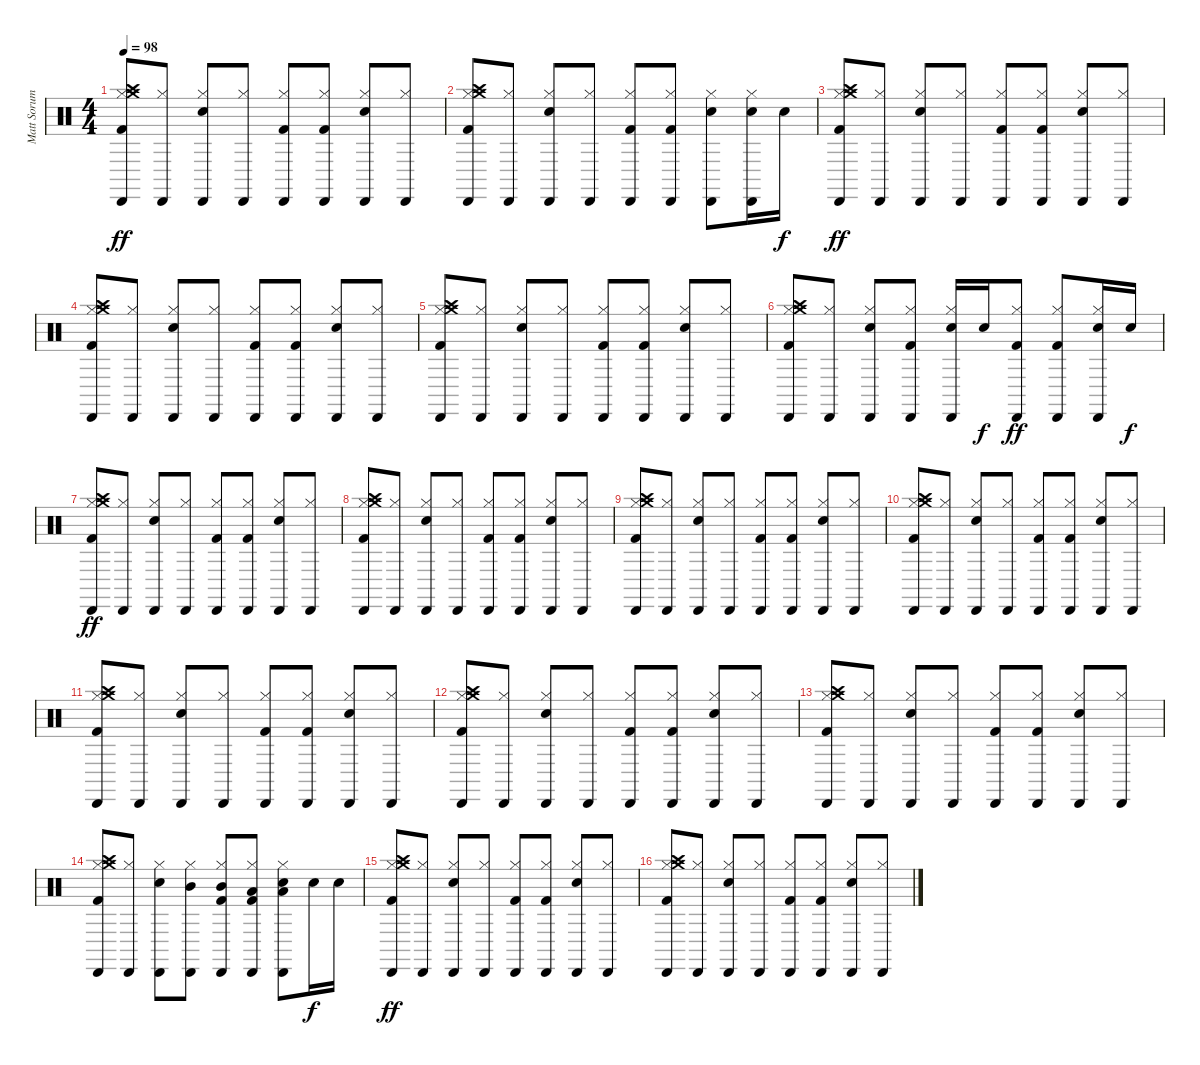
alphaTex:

\track ("Matt Sorum" "Matt Sorum") {instrument percussion}
\staff {score}
\articulation defaults
\ts (4 4)
\tempo 98
\clef neutral
\ks c
("Kick (hit) 2" "Hi-Hat (closed)" "Cabasa (hit)" "Crash medium (hit)" "Crash high (hit)").8{dy ff} ("Hi-Hat (closed)" "Cabasa (hit)").8 ("Snare (hit) 2" "Hi-Hat (closed)" "Cabasa (hit)").8 ("Hi-Hat (closed)" "Cabasa (hit)").8 ("Kick (hit) 2" "Hi-Hat (closed)" "Cabasa (hit)").8 ("Kick (hit) 2" "Hi-Hat (closed)" "Cabasa (hit)").8 ("Snare (hit) 2" "Hi-Hat (closed)" "Cabasa (hit)").8 ("Hi-Hat (closed)" "Cabasa (hit)").8 |
("Kick (hit) 2" "Hi-Hat (closed)" "Cabasa (hit)" "Crash medium (hit)" "Crash high (hit)").8 ("Hi-Hat (closed)" "Cabasa (hit)").8 ("Snare (hit) 2" "Hi-Hat (closed)" "Cabasa (hit)").8 ("Hi-Hat (closed)" "Cabasa (hit)").8 ("Kick (hit) 2" "Hi-Hat (closed)" "Cabasa (hit)").8 ("Kick (hit) 2" "Hi-Hat (closed)" "Cabasa (hit)").8 ("Snare (hit) 2" "Hi-Hat (closed)" "Cabasa (hit)").8 ("Snare (hit) 2" "Hi-Hat (closed)" "Cabasa (hit)").16 "Snare (hit) 2".16{dy f} |
("Kick (hit) 2" "Hi-Hat (closed)" "Cabasa (hit)" "Crash medium (hit)" "Crash high (hit)").8{dy ff} ("Hi-Hat (closed)" "Cabasa (hit)").8 ("Snare (hit) 2" "Hi-Hat (closed)" "Cabasa (hit)").8 ("Hi-Hat (closed)" "Cabasa (hit)").8 ("Kick (hit) 2" "Hi-Hat (closed)" "Cabasa (hit)").8 ("Kick (hit) 2" "Hi-Hat (closed)" "Cabasa (hit)").8 ("Snare (hit) 2" "Hi-Hat (closed)" "Cabasa (hit)").8 ("Hi-Hat (closed)" "Cabasa (hit)").8 |
("Kick (hit) 2" "Hi-Hat (closed)" "Cabasa (hit)" "Crash medium (hit)" "Crash high (hit)").8 ("Hi-Hat (closed)" "Cabasa (hit)").8 ("Snare (hit) 2" "Hi-Hat (closed)" "Cabasa (hit)").8 ("Hi-Hat (closed)" "Cabasa (hit)").8 ("Kick (hit) 2" "Hi-Hat (closed)" "Cabasa (hit)").8 ("Kick (hit) 2" "Hi-Hat (closed)" "Cabasa (hit)").8 ("Snare (hit) 2" "Hi-Hat (closed)" "Cabasa (hit)").8 ("Hi-Hat (closed)" "Cabasa (hit)").8 |
("Kick (hit) 2" "Hi-Hat (closed)" "Cabasa (hit)" "Crash medium (hit)" "Crash high (hit)").8 ("Hi-Hat (closed)" "Cabasa (hit)").8 ("Snare (hit) 2" "Hi-Hat (closed)" "Cabasa (hit)").8 ("Hi-Hat (closed)" "Cabasa (hit)").8 ("Kick (hit) 2" "Hi-Hat (closed)" "Cabasa (hit)").8 ("Kick (hit) 2" "Hi-Hat (closed)" "Cabasa (hit)").8 ("Snare (hit) 2" "Hi-Hat (closed)" "Cabasa (hit)").8 ("Hi-Hat (closed)" "Cabasa (hit)").8 |
("Kick (hit) 2" "Hi-Hat (closed)" "Cabasa (hit)" "Crash medium (hit)" "Crash high (hit)").8 ("Hi-Hat (closed)" "Cabasa (hit)").8 ("Snare (hit) 2" "Hi-Hat (closed)" "Cabasa (hit)").8 ("Kick (hit) 2" "Hi-Hat (closed)" "Cabasa (hit)").8 ("Snare (hit) 2" "Hi-Hat (closed)" "Cabasa (hit)").16 "Snare (hit) 2".16{dy f} ("Kick (hit) 2" "Hi-Hat (closed)" "Cabasa (hit)").8{dy ff} ("Kick (hit) 2" "Hi-Hat (closed)" "Cabasa (hit)").8 ("Snare (hit) 2" "Hi-Hat (closed)" "Cabasa (hit)").16 "Snare (hit) 2".16{dy f} |
("Kick (hit) 2" "Hi-Hat (closed)" "Cabasa (hit)" "Crash medium (hit)" "Crash high (hit)").8{dy ff} ("Hi-Hat (closed)" "Cabasa (hit)").8 ("Snare (hit) 2" "Hi-Hat (closed)" "Cabasa (hit)").8 ("Hi-Hat (closed)" "Cabasa (hit)").8 ("Kick (hit) 2" "Hi-Hat (closed)" "Cabasa (hit)").8 ("Kick (hit) 2" "Hi-Hat (closed)" "Cabasa (hit)").8 ("Snare (hit) 2" "Hi-Hat (closed)" "Cabasa (hit)").8 ("Hi-Hat (closed)" "Cabasa (hit)").8 |
("Kick (hit) 2" "Hi-Hat (closed)" "Cabasa (hit)" "Crash medium (hit)" "Crash high (hit)").8 ("Hi-Hat (closed)" "Cabasa (hit)").8 ("Snare (hit) 2" "Hi-Hat (closed)" "Cabasa (hit)").8 ("Hi-Hat (closed)" "Cabasa (hit)").8 ("Kick (hit) 2" "Hi-Hat (closed)" "Cabasa (hit)").8 ("Kick (hit) 2" "Hi-Hat (closed)" "Cabasa (hit)").8 ("Snare (hit) 2" "Hi-Hat (closed)" "Cabasa (hit)").8 ("Hi-Hat (closed)" "Cabasa (hit)").8 |
("Kick (hit) 2" "Hi-Hat (closed)" "Cabasa (hit)" "Crash medium (hit)" "Crash high (hit)").8 ("Hi-Hat (closed)" "Cabasa (hit)").8 ("Snare (hit) 2" "Hi-Hat (closed)" "Cabasa (hit)").8 ("Hi-Hat (closed)" "Cabasa (hit)").8 ("Kick (hit) 2" "Hi-Hat (closed)" "Cabasa (hit)").8 ("Kick (hit) 2" "Hi-Hat (closed)" "Cabasa (hit)").8 ("Snare (hit) 2" "Hi-Hat (closed)" "Cabasa (hit)").8 ("Hi-Hat (closed)" "Cabasa (hit)").8 |
("Kick (hit) 2" "Hi-Hat (closed)" "Cabasa (hit)" "Crash medium (hit)" "Crash high (hit)").8 ("Hi-Hat (closed)" "Cabasa (hit)").8 ("Snare (hit) 2" "Hi-Hat (closed)" "Cabasa (hit)").8 ("Hi-Hat (closed)" "Cabasa (hit)").8 ("Kick (hit) 2" "Hi-Hat (closed)" "Cabasa (hit)").8 ("Kick (hit) 2" "Hi-Hat (closed)" "Cabasa (hit)").8 ("Snare (hit) 2" "Hi-Hat (closed)" "Cabasa (hit)").8 ("Hi-Hat (closed)" "Cabasa (hit)").8 |
("Kick (hit) 2" "Hi-Hat (closed)" "Cabasa (hit)" "Crash medium (hit)" "Crash high (hit)").8 ("Hi-Hat (closed)" "Cabasa (hit)").8 ("Snare (hit) 2" "Hi-Hat (closed)" "Cabasa (hit)").8 ("Hi-Hat (closed)" "Cabasa (hit)").8 ("Kick (hit) 2" "Hi-Hat (closed)" "Cabasa (hit)").8 ("Kick (hit) 2" "Hi-Hat (closed)" "Cabasa (hit)").8 ("Snare (hit) 2" "Hi-Hat (closed)" "Cabasa (hit)").8 ("Hi-Hat (closed)" "Cabasa (hit)").8 |
("Kick (hit) 2" "Hi-Hat (closed)" "Cabasa (hit)" "Crash medium (hit)" "Crash high (hit)").8 ("Hi-Hat (closed)" "Cabasa (hit)").8 ("Snare (hit) 2" "Hi-Hat (closed)" "Cabasa (hit)").8 ("Hi-Hat (closed)" "Cabasa (hit)").8 ("Kick (hit) 2" "Hi-Hat (closed)" "Cabasa (hit)").8 ("Kick (hit) 2" "Hi-Hat (closed)" "Cabasa (hit)").8 ("Snare (hit) 2" "Hi-Hat (closed)" "Cabasa (hit)").8 ("Hi-Hat (closed)" "Cabasa (hit)").8 |
("Kick (hit) 2" "Hi-Hat (closed)" "Cabasa (hit)" "Crash medium (hit)" "Crash high (hit)").8 ("Hi-Hat (closed)" "Cabasa (hit)").8 ("Snare (hit) 2" "Hi-Hat (closed)" "Cabasa (hit)").8 ("Hi-Hat (closed)" "Cabasa (hit)").8 ("Kick (hit) 2" "Hi-Hat (closed)" "Cabasa (hit)").8 ("Kick (hit) 2" "Hi-Hat (closed)" "Cabasa (hit)").8 ("Snare (hit) 2" "Hi-Hat (closed)" "Cabasa (hit)").8 ("Hi-Hat (closed)" "Cabasa (hit)").8 |
("Kick (hit) 2" "Hi-Hat (closed)" "Cabasa (hit)" "Crash medium (hit)" "Crash high (hit)").8 ("Hi-Hat (closed)" "Cabasa (hit)").8 ("Snare (hit) 2" "Hi-Hat (closed)" "Cabasa (hit)").8 ("Mid Tom (hit)" "Hi-Hat (closed)" "Cabasa (hit)").8 ("Kick (hit) 2" "Mid Tom (hit)" "Hi-Hat (closed)" "Cabasa (hit)").8 ("Kick (hit) 2" "Low Tom (hit)" "Hi-Hat (closed)" "Cabasa (hit)").8 ("Snare (hit) 2" "Low Tom (hit)" "Hi-Hat (closed)" "Cabasa (hit)").8 "Snare (hit) 2".16{dy f} "Snare (hit) 2".16 |
("Kick (hit) 2" "Hi-Hat (closed)" "Cabasa (hit)" "Crash medium (hit)" "Crash high (hit)").8{dy ff volume 16} ("Hi-Hat (closed)" "Cabasa (hit)").8 ("Snare (hit) 2" "Hi-Hat (closed)" "Cabasa (hit)").8 ("Hi-Hat (closed)" "Cabasa (hit)").8 ("Kick (hit) 2" "Hi-Hat (closed)" "Cabasa (hit)").8 ("Kick (hit) 2" "Hi-Hat (closed)" "Cabasa (hit)").8 ("Snare (hit) 2" "Hi-Hat (closed)" "Cabasa (hit)").8 ("Hi-Hat (closed)" "Cabasa (hit)").8 |
("Kick (hit) 2" "Hi-Hat (closed)" "Cabasa (hit)" "Crash medium (hit)" "Crash high (hit)").8 ("Hi-Hat (closed)" "Cabasa (hit)").8 ("Snare (hit) 2" "Hi-Hat (closed)" "Cabasa (hit)").8 ("Hi-Hat (closed)" "Cabasa (hit)").8 ("Kick (hit) 2" "Hi-Hat (closed)" "Cabasa (hit)").8 ("Kick (hit) 2" "Hi-Hat (closed)" "Cabasa (hit)").8 ("Snare (hit) 2" "Hi-Hat (closed)" "Cabasa (hit)").8 ("Hi-Hat (closed)" "Cabasa (hit)").8
